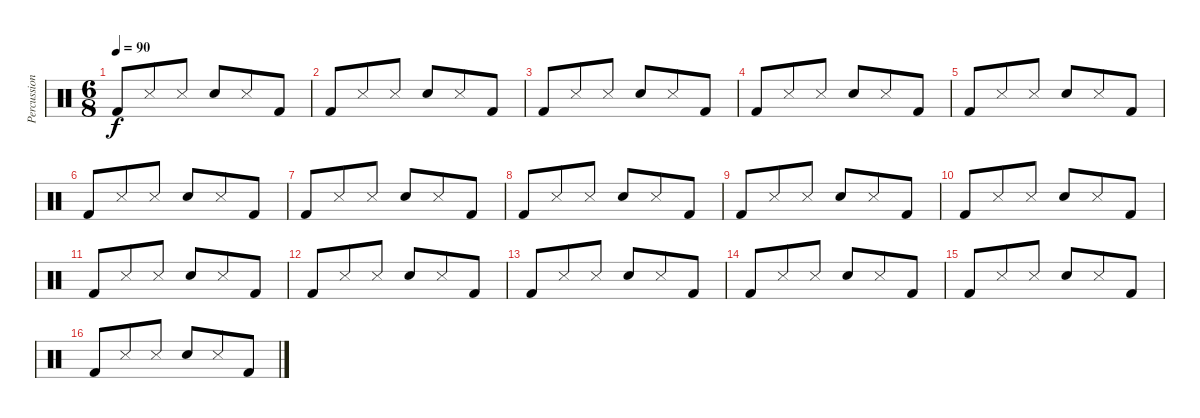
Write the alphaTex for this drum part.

\track ("Percussion" "Percussion") {instrument percussion}
\staff {score}
\articulation defaults
\ts (6 8)
\tempo 90
\clef neutral
\ks c "Kick (hit) 2".8{dy f} "Snare (side stick) 3".8 "Snare (side stick) 3".8 "Electric Snare (hit)".8 "Snare (side stick) 3".8 "Kick (hit) 2".8
|
"Kick (hit) 2".8 "Snare (side stick) 3".8 "Snare (side stick) 3".8 "Electric Snare (hit)".8 "Snare (side stick) 3".8 "Kick (hit) 2".8 |
"Kick (hit) 2".8 "Snare (side stick) 3".8 "Snare (side stick) 3".8 "Electric Snare (hit)".8 "Snare (side stick) 3".8 "Kick (hit) 2".8 |
"Kick (hit) 2".8 "Snare (side stick) 3".8 "Snare (side stick) 3".8 "Electric Snare (hit)".8 "Snare (side stick) 3".8 "Kick (hit) 2".8 |
"Kick (hit) 2".8 "Snare (side stick) 3".8 "Snare (side stick) 3".8 "Electric Snare (hit)".8 "Snare (side stick) 3".8 "Kick (hit) 2".8 |
"Kick (hit) 2".8 "Snare (side stick) 3".8 "Snare (side stick) 3".8 "Electric Snare (hit)".8 "Snare (side stick) 3".8 "Kick (hit) 2".8 |
"Kick (hit) 2".8 "Snare (side stick) 3".8 "Snare (side stick) 3".8 "Electric Snare (hit)".8 "Snare (side stick) 3".8 "Kick (hit) 2".8 |
"Kick (hit) 2".8 "Snare (side stick) 3".8 "Snare (side stick) 3".8 "Electric Snare (hit)".8 "Snare (side stick) 3".8 "Kick (hit) 2".8 |
"Kick (hit) 2".8 "Snare (side stick) 3".8 "Snare (side stick) 3".8 "Electric Snare (hit)".8 "Snare (side stick) 3".8 "Kick (hit) 2".8 |
"Kick (hit) 2".8 "Snare (side stick) 3".8 "Snare (side stick) 3".8 "Electric Snare (hit)".8 "Snare (side stick) 3".8 "Kick (hit) 2".8 |
"Kick (hit) 2".8 "Snare (side stick) 3".8 "Snare (side stick) 3".8 "Electric Snare (hit)".8 "Snare (side stick) 3".8 "Kick (hit) 2".8 |
"Kick (hit) 2".8 "Snare (side stick) 3".8 "Snare (side stick) 3".8 "Electric Snare (hit)".8 "Snare (side stick) 3".8 "Kick (hit) 2".8 |
"Kick (hit) 2".8 "Snare (side stick) 3".8 "Snare (side stick) 3".8 "Electric Snare (hit)".8 "Snare (side stick) 3".8 "Kick (hit) 2".8 |
"Kick (hit) 2".8 "Snare (side stick) 3".8 "Snare (side stick) 3".8 "Electric Snare (hit)".8 "Snare (side stick) 3".8 "Kick (hit) 2".8 |
"Kick (hit) 2".8 "Snare (side stick) 3".8 "Snare (side stick) 3".8 "Electric Snare (hit)".8 "Snare (side stick) 3".8 "Kick (hit) 2".8 |
"Kick (hit) 2".8 "Snare (side stick) 3".8 "Snare (side stick) 3".8 "Electric Snare (hit)".8 "Snare (side stick) 3".8 "Kick (hit) 2".8
